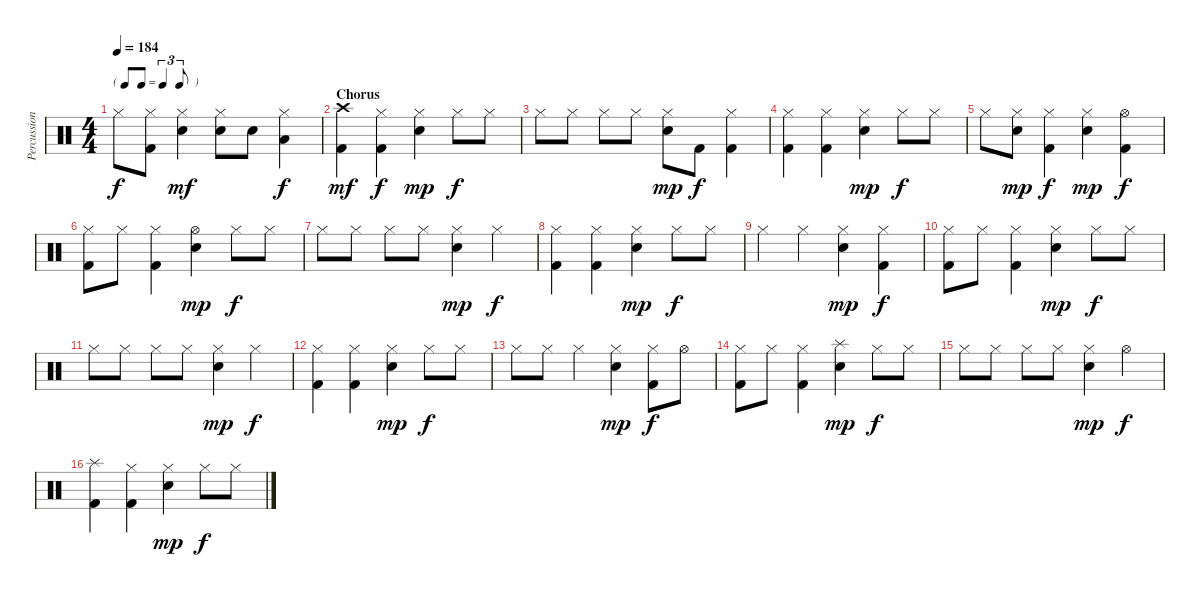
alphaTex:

\track ("Percussion" "Percussion") {instrument percussion}
\staff {score}
\articulation defaults
\ts (4 4)
\tf triplet8th
\tempo 184
\clef neutral
\ks c "Hi-Hat (closed)".8{dy f}
("Hi-Hat (closed)" "Kick (hit) 2").8 ("Hi-Hat (closed)" "Electric Snare (hit)").4{dy mf} ("Hi-Hat (closed)" "Electric Snare (hit)").8 "Electric Snare (hit)".8 ("Hi-Hat (closed)" "Low Tom (hit)").4{dy f} |
\section ("" "Chorus")
("Crash high (hit)" "Kick (hit) 2").4{dy mf} ("Hi-Hat (closed)" "Kick (hit) 2").4{dy f} ("Hi-Hat (closed)" "Electric Snare (hit)").4{dy mp} "Hi-Hat (closed)".8{dy f} "Hi-Hat (closed)".8 |
"Hi-Hat (closed)".8 "Hi-Hat (closed)".8 "Hi-Hat (closed)".8 "Hi-Hat (closed)".8 ("Hi-Hat (closed)" "Electric Snare (hit)").8{dy mp} "Kick (hit) 2".8{dy f} ("Hi-Hat (closed)" "Kick (hit) 2").4 |
("Hi-Hat (closed)" "Kick (hit) 2").4 ("Hi-Hat (closed)" "Kick (hit) 2").4 ("Hi-Hat (closed)" "Electric Snare (hit)").4{dy mp} "Hi-Hat (closed)".8{dy f} "Hi-Hat (closed)".8 |
"Hi-Hat (closed)".8 ("Hi-Hat (closed)" "Electric Snare (hit)").8{dy mp} ("Hi-Hat (closed)" "Kick (hit) 2").4{dy f} ("Hi-Hat (closed)" "Electric Snare (hit)").4{dy mp} ("Hi-Hat (open)" "Kick (hit) 2").4{dy f} |
("Hi-Hat (closed)" "Kick (hit) 2").8 "Hi-Hat (closed)".8 ("Hi-Hat (closed)" "Kick (hit) 2").4 ("Hi-Hat (open)" "Electric Snare (hit)").4{dy mp} "Hi-Hat (closed)".8{dy f} "Hi-Hat (closed)".8 |
"Hi-Hat (closed)".8 "Hi-Hat (closed)".8 "Hi-Hat (closed)".8 "Hi-Hat (closed)".8 ("Hi-Hat (closed)" "Electric Snare (hit)").4{dy mp} "Hi-Hat (closed)".4{dy f} |
("Hi-Hat (closed)" "Kick (hit) 2").4 ("Hi-Hat (closed)" "Kick (hit) 2").4 ("Hi-Hat (closed)" "Electric Snare (hit)").4{dy mp} "Hi-Hat (closed)".8{dy f} "Hi-Hat (closed)".8 |
"Hi-Hat (closed)".4 "Hi-Hat (closed)".4 ("Hi-Hat (closed)" "Electric Snare (hit)").4{dy mp} ("Hi-Hat (closed)" "Kick (hit) 2").4{dy f} |
("Hi-Hat (closed)" "Kick (hit) 2").8 "Hi-Hat (closed)".8 ("Hi-Hat (closed)" "Kick (hit) 2").4 ("Hi-Hat (closed)" "Electric Snare (hit)").4{dy mp} "Hi-Hat (closed)".8{dy f} "Hi-Hat (closed)".8 |
"Hi-Hat (closed)".8 "Hi-Hat (closed)".8 "Hi-Hat (closed)".8 "Hi-Hat (closed)".8 ("Hi-Hat (closed)" "Electric Snare (hit)").4{dy mp} "Hi-Hat (closed)".4{dy f} |
("Hi-Hat (closed)" "Kick (hit) 2").4 ("Hi-Hat (closed)" "Kick (hit) 2").4 ("Hi-Hat (closed)" "Electric Snare (hit)").4{dy mp} "Hi-Hat (closed)".8{dy f} "Hi-Hat (closed)".8 |
"Hi-Hat (closed)".8 "Hi-Hat (closed)".8 "Hi-Hat (closed)".4 ("Hi-Hat (closed)" "Electric Snare (hit)").4{dy mp} ("Hi-Hat (closed)" "Kick (hit) 2").8{dy f} "Hi-Hat (open)".8 |
("Hi-Hat (closed)" "Kick (hit) 2").8 "Hi-Hat (closed)".8 ("Hi-Hat (closed)" "Kick (hit) 2").4 ("Splash (hit)" "Electric Snare (hit)").4{dy mp} "Hi-Hat (closed)".8{dy f} "Hi-Hat (closed)".8 |
"Hi-Hat (closed)".8 "Hi-Hat (closed)".8 "Hi-Hat (closed)".8 "Hi-Hat (closed)".8 ("Hi-Hat (closed)" "Electric Snare (hit)").4{dy mp} "Hi-Hat (open)".4{dy f} |
("Splash (hit)" "Kick (hit) 2").4 ("Hi-Hat (closed)" "Kick (hit) 2").4 ("Hi-Hat (closed)" "Electric Snare (hit)").4{dy mp} "Hi-Hat (closed)".8{dy f} "Hi-Hat (closed)".8
